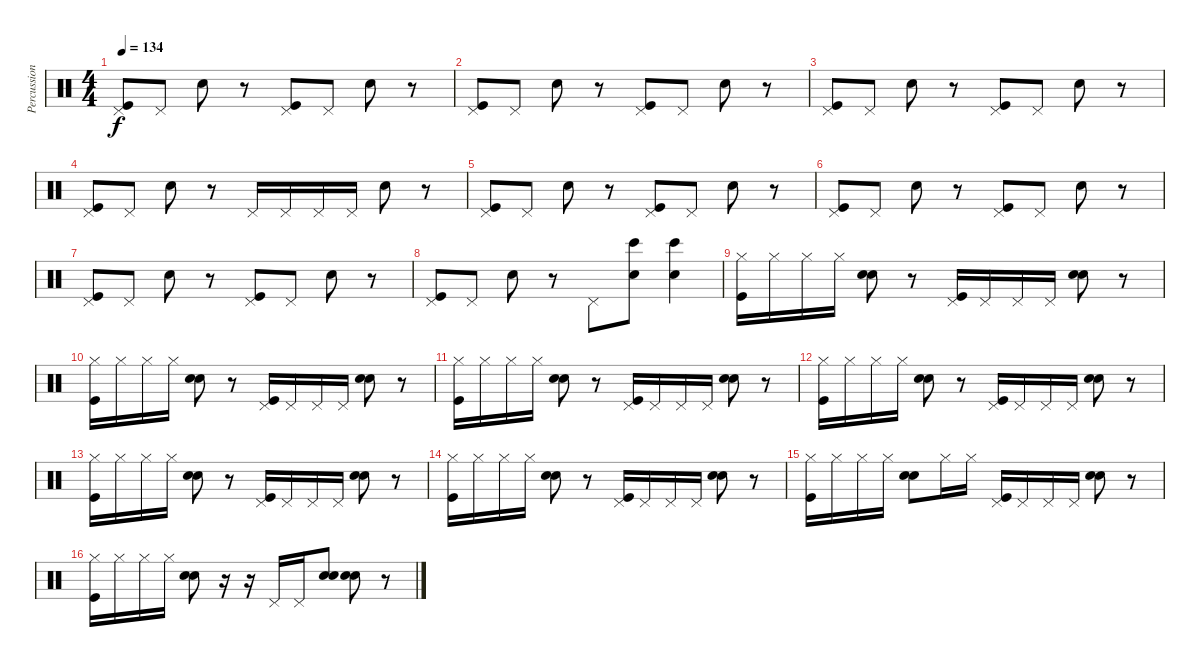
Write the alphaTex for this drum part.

\track ("Percussion" "Percussion") {instrument percussion}
\staff {score}
\articulation defaults
\ts (4 4)
\tempo 134
\clef neutral
\ks c
("Pedal Hi-Hat (hit)" "Kick (hit)").8{dy f} "Pedal Hi-Hat (hit)".8 "Electric Snare (hit)".8 r.8 ("Pedal Hi-Hat (hit)" "Kick (hit)").8 "Pedal Hi-Hat (hit)".8 "Electric Snare (hit)".8 r.8 |
("Pedal Hi-Hat (hit)" "Kick (hit)").8 "Pedal Hi-Hat (hit)".8 "Electric Snare (hit)".8 r.8 ("Pedal Hi-Hat (hit)" "Kick (hit)").8 "Pedal Hi-Hat (hit)".8 "Electric Snare (hit)".8 r.8 |
("Pedal Hi-Hat (hit)" "Kick (hit)").8 "Pedal Hi-Hat (hit)".8 "Electric Snare (hit)".8 r.8 ("Pedal Hi-Hat (hit)" "Kick (hit)").8 "Pedal Hi-Hat (hit)".8 "Electric Snare (hit)".8 r.8 |
("Pedal Hi-Hat (hit)" "Kick (hit)").8 "Pedal Hi-Hat (hit)".8 "Electric Snare (hit)".8 r.8 "Pedal Hi-Hat (hit)".16 "Pedal Hi-Hat (hit)".16 "Pedal Hi-Hat (hit)".16 "Pedal Hi-Hat (hit)".16 "Electric Snare (hit)".8 r.8 |
("Pedal Hi-Hat (hit)" "Kick (hit)").8 "Pedal Hi-Hat (hit)".8 "Electric Snare (hit)".8 r.8 ("Pedal Hi-Hat (hit)" "Kick (hit)").8 "Pedal Hi-Hat (hit)".8 "Electric Snare (hit)".8 r.8 |
("Pedal Hi-Hat (hit)" "Kick (hit)").8 "Pedal Hi-Hat (hit)".8 "Electric Snare (hit)".8 r.8 ("Pedal Hi-Hat (hit)" "Kick (hit)").8 "Pedal Hi-Hat (hit)".8 "Electric Snare (hit)".8 r.8 |
("Pedal Hi-Hat (hit)" "Kick (hit)").8 "Pedal Hi-Hat (hit)".8 "Electric Snare (hit)".8 r.8 ("Pedal Hi-Hat (hit)" "Kick (hit)").8 "Pedal Hi-Hat (hit)".8 "Electric Snare (hit)".8 r.8 |
("Pedal Hi-Hat (hit)" "Kick (hit)").8 "Pedal Hi-Hat (hit)".8 "Electric Snare (hit)".8 r.8 "Pedal Hi-Hat (hit)".8 ("Bongo High (hit)" "Electric Snare (hit)").8 ("Bongo High (hit)" "Electric Snare (hit)").4 |
("Hi-Hat (closed)" "Kick (hit)").16 "Hi-Hat (closed)".16 "Hi-Hat (closed)".16 "Hi-Hat (closed)".16 ("Hand Clap (hit)" "Electric Snare (hit)").8 r.8 ("Pedal Hi-Hat (hit)" "Kick (hit)").16 "Pedal Hi-Hat (hit)".16 "Pedal Hi-Hat (hit)".16 "Pedal Hi-Hat (hit)".16 ("Hand Clap (hit)" "Electric Snare (hit)").8 r.8 |
("Hi-Hat (closed)" "Kick (hit)").16 "Hi-Hat (closed)".16 "Hi-Hat (closed)".16 "Hi-Hat (closed)".16 ("Hand Clap (hit)" "Electric Snare (hit)").8 r.8 ("Pedal Hi-Hat (hit)" "Kick (hit)").16 "Pedal Hi-Hat (hit)".16 "Pedal Hi-Hat (hit)".16 "Pedal Hi-Hat (hit)".16 ("Hand Clap (hit)" "Electric Snare (hit)").8 r.8 |
("Hi-Hat (closed)" "Kick (hit)").16 "Hi-Hat (closed)".16 "Hi-Hat (closed)".16 "Hi-Hat (closed)".16 ("Hand Clap (hit)" "Electric Snare (hit)").8 r.8 ("Pedal Hi-Hat (hit)" "Kick (hit)").16 "Pedal Hi-Hat (hit)".16 "Pedal Hi-Hat (hit)".16 "Pedal Hi-Hat (hit)".16 ("Hand Clap (hit)" "Electric Snare (hit)").8 r.8 |
("Hi-Hat (closed)" "Kick (hit)").16 "Hi-Hat (closed)".16 "Hi-Hat (closed)".16 "Hi-Hat (closed)".16 ("Hand Clap (hit)" "Electric Snare (hit)").8 r.8 ("Pedal Hi-Hat (hit)" "Kick (hit)").16 "Pedal Hi-Hat (hit)".16 "Pedal Hi-Hat (hit)".16 "Pedal Hi-Hat (hit)".16 ("Hand Clap (hit)" "Electric Snare (hit)").8 r.8 |
("Hi-Hat (closed)" "Kick (hit)").16 "Hi-Hat (closed)".16 "Hi-Hat (closed)".16 "Hi-Hat (closed)".16 ("Hand Clap (hit)" "Electric Snare (hit)").8 r.8 ("Pedal Hi-Hat (hit)" "Kick (hit)").16 "Pedal Hi-Hat (hit)".16 "Pedal Hi-Hat (hit)".16 "Pedal Hi-Hat (hit)".16 ("Hand Clap (hit)" "Electric Snare (hit)").8 r.8 |
("Hi-Hat (closed)" "Kick (hit)").16 "Hi-Hat (closed)".16 "Hi-Hat (closed)".16 "Hi-Hat (closed)".16 ("Hand Clap (hit)" "Electric Snare (hit)").8 r.8 ("Pedal Hi-Hat (hit)" "Kick (hit)").16 "Pedal Hi-Hat (hit)".16 "Pedal Hi-Hat (hit)".16 "Pedal Hi-Hat (hit)".16 ("Hand Clap (hit)" "Electric Snare (hit)").8 r.8 |
("Hi-Hat (closed)" "Kick (hit)").16 "Hi-Hat (closed)".16 "Hi-Hat (closed)".16 "Hi-Hat (closed)".16 ("Hand Clap (hit)" "Electric Snare (hit)").8 "Hi-Hat (closed)".16 "Hi-Hat (closed)".16 ("Pedal Hi-Hat (hit)" "Kick (hit)").16 "Pedal Hi-Hat (hit)".16 "Pedal Hi-Hat (hit)".16 "Pedal Hi-Hat (hit)".16 ("Hand Clap (hit)" "Electric Snare (hit)").8 r.8 |
("Hi-Hat (closed)" "Kick (hit)").16 "Hi-Hat (closed)".16 "Hi-Hat (closed)".16 "Hi-Hat (closed)".16 ("Hand Clap (hit)" "Electric Snare (hit)").8 r.16 r.16 "Pedal Hi-Hat (hit)".16 "Pedal Hi-Hat (hit)".16 ("Hand Clap (hit)" "Electric Snare (hit)").8 ("Hand Clap (hit)" "Electric Snare (hit)").8 r.8
